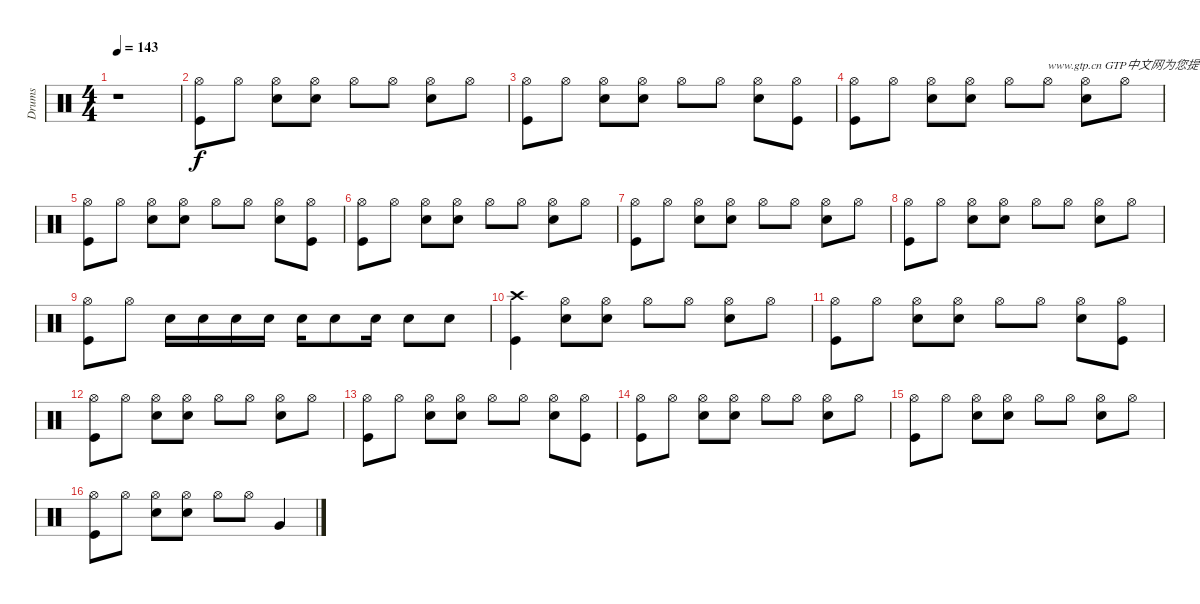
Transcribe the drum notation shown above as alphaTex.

\track ("Drums" "Drums") {instrument percussion}
\staff {score}
\articulation defaults
\ts (4 4)
\tempo 143
\clef neutral
\ks c
r.1{dy f} |
("Kick (hit)" "Hi-Hat (open)").8 "Hi-Hat (open)".8 ("Hi-Hat (open)" "Snare (hit) 2").8 ("Hi-Hat (open)" "Snare (hit) 2").8 "Hi-Hat (open)".8 "Hi-Hat (open)".8 ("Hi-Hat (open)" "Snare (hit) 2").8 "Hi-Hat (open)".8 |
("Hi-Hat (open)" "Kick (hit)").8 "Hi-Hat (open)".8 ("Hi-Hat (open)" "Snare (hit) 2").8 ("Hi-Hat (open)" "Snare (hit) 2").8 "Hi-Hat (open)".8 "Hi-Hat (open)".8 ("Hi-Hat (open)" "Snare (hit) 2").8 ("Hi-Hat (open)" "Kick (hit)").8 |
("Hi-Hat (open)" "Kick (hit)").8 "Hi-Hat (open)".8 ("Hi-Hat (open)" "Snare (hit) 2").8 ("Hi-Hat (open)" "Snare (hit) 2").8 "Hi-Hat (open)".8 "Hi-Hat (open)".8{txt "www.gtp.cn GTP中文网为您提供优秀的谱子"} ("Hi-Hat (open)" "Snare (hit) 2").8 "Hi-Hat (open)".8 |
("Hi-Hat (open)" "Kick (hit)").8 "Hi-Hat (open)".8 ("Hi-Hat (open)" "Snare (hit) 2").8 ("Hi-Hat (open)" "Snare (hit) 2").8 "Hi-Hat (open)".8 "Hi-Hat (open)".8 ("Hi-Hat (open)" "Snare (hit) 2").8 ("Hi-Hat (open)" "Kick (hit)").8 |
("Hi-Hat (open)" "Kick (hit)").8 "Hi-Hat (open)".8 ("Hi-Hat (open)" "Snare (hit) 2").8 ("Hi-Hat (open)" "Snare (hit) 2").8 "Hi-Hat (open)".8 "Hi-Hat (open)".8 ("Hi-Hat (open)" "Snare (hit) 2").8 "Hi-Hat (open)".8 |
("Hi-Hat (open)" "Kick (hit)").8 "Hi-Hat (open)".8 ("Hi-Hat (open)" "Snare (hit) 2").8 ("Hi-Hat (open)" "Snare (hit) 2").8 "Hi-Hat (open)".8 "Hi-Hat (open)".8 ("Hi-Hat (open)" "Snare (hit) 2").8 "Hi-Hat (open)".8 |
("Hi-Hat (open)" "Kick (hit)").8 "Hi-Hat (open)".8 ("Hi-Hat (open)" "Snare (hit) 2").8 ("Hi-Hat (open)" "Snare (hit) 2").8 "Hi-Hat (open)".8 "Hi-Hat (open)".8 ("Hi-Hat (open)" "Snare (hit) 2").8 "Hi-Hat (open)".8 |
("Hi-Hat (open)" "Kick (hit)").8 "Hi-Hat (open)".8 "Snare (hit) 2".16 "Snare (hit) 2".16 "Snare (hit) 2".16 "Snare (hit) 2".16 "Snare (hit) 2".16 "Snare (hit) 2".8 "Snare (hit) 2".16 "Snare (hit) 2".8 "Snare (hit) 2".8 |
("Crash high (hit)" "Kick (hit)").4 ("Hi-Hat (open)" "Snare (hit) 2").8 ("Hi-Hat (open)" "Snare (hit) 2").8 "Hi-Hat (open)".8 "Hi-Hat (open)".8 ("Hi-Hat (open)" "Snare (hit) 2").8 "Hi-Hat (open)".8 |
("Hi-Hat (open)" "Kick (hit)").8 "Hi-Hat (open)".8 ("Hi-Hat (open)" "Snare (hit) 2").8 ("Hi-Hat (open)" "Snare (hit) 2").8 "Hi-Hat (open)".8 "Hi-Hat (open)".8 ("Hi-Hat (open)" "Snare (hit) 2").8 ("Hi-Hat (open)" "Kick (hit)").8 |
("Hi-Hat (open)" "Kick (hit)").8 "Hi-Hat (open)".8 ("Hi-Hat (open)" "Snare (hit) 2").8 ("Hi-Hat (open)" "Snare (hit) 2").8 "Hi-Hat (open)".8 "Hi-Hat (open)".8 ("Hi-Hat (open)" "Snare (hit) 2").8 "Hi-Hat (open)".8 |
("Kick (hit)" "Hi-Hat (open)").8 "Hi-Hat (open)".8 ("Hi-Hat (open)" "Snare (hit) 2").8 ("Hi-Hat (open)" "Snare (hit) 2").8 "Hi-Hat (open)".8 "Hi-Hat (open)".8 ("Hi-Hat (open)" "Snare (hit) 2").8 ("Hi-Hat (open)" "Kick (hit)").8 |
("Hi-Hat (open)" "Kick (hit)").8 "Hi-Hat (open)".8 ("Hi-Hat (open)" "Snare (hit) 2").8 ("Hi-Hat (open)" "Snare (hit) 2").8 "Hi-Hat (open)".8 "Hi-Hat (open)".8 ("Hi-Hat (open)" "Snare (hit) 2").8 "Hi-Hat (open)".8 |
("Kick (hit)" "Hi-Hat (open)").8 "Hi-Hat (open)".8 ("Hi-Hat (open)" "Snare (hit) 2").8 ("Hi-Hat (open)" "Snare (hit) 2").8 "Hi-Hat (open)".8 "Hi-Hat (open)".8 ("Hi-Hat (open)" "Snare (hit) 2").8 "Hi-Hat (open)".8 |
("Kick (hit)" "Hi-Hat (open)").8 "Hi-Hat (open)".8 ("Hi-Hat (open)" "Snare (hit) 2").8 ("Hi-Hat (open)" "Snare (hit) 2").8 "Hi-Hat (open)".8 "Hi-Hat (open)".8 "Very Low Tom (hit)".4
